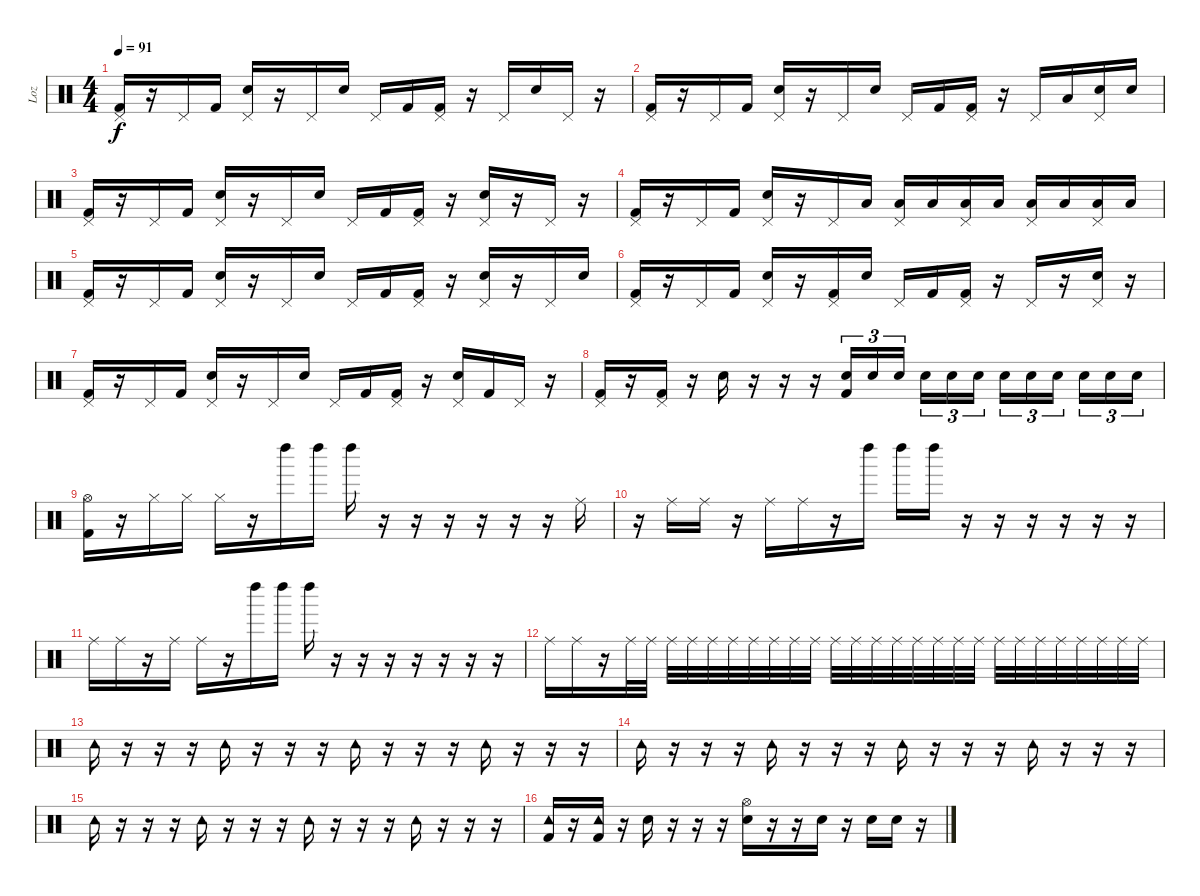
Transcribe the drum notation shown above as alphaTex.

\track ("Loz" "Loz") {instrument percussion}
\staff {score}
\articulation defaults
\ts (4 4)
\tempo 91
\clef neutral
\ks c
("Pedal Hi-Hat (hit)" "Kick (hit) 2").16{dy f} r.16 "Pedal Hi-Hat (hit)".16 "Kick (hit) 2".16 ("Pedal Hi-Hat (hit)" "Electric Snare (hit)").16 r.16 "Pedal Hi-Hat (hit)".16 "Electric Snare (hit)".16 "Pedal Hi-Hat (hit)".16 "Kick (hit) 2".16 ("Pedal Hi-Hat (hit)" "Kick (hit) 2").16 r.16 "Pedal Hi-Hat (hit)".16 "Electric Snare (hit)".16 "Pedal Hi-Hat (hit)".16 r.16 |
("Pedal Hi-Hat (hit)" "Kick (hit) 2").16 r.16 "Pedal Hi-Hat (hit)".16 "Kick (hit) 2".16 ("Pedal Hi-Hat (hit)" "Electric Snare (hit)").16 r.16 "Pedal Hi-Hat (hit)".16 "Electric Snare (hit)".16 "Pedal Hi-Hat (hit)".16 "Kick (hit) 2".16 ("Pedal Hi-Hat (hit)" "Kick (hit) 2").16 r.16 "Pedal Hi-Hat (hit)".16 "Low Tom (hit)".16 ("Pedal Hi-Hat (hit)" "Electric Snare (hit)").16 "Electric Snare (hit)".16 |
("Pedal Hi-Hat (hit)" "Kick (hit) 2").16 r.16 "Pedal Hi-Hat (hit)".16 "Kick (hit) 2".16 ("Pedal Hi-Hat (hit)" "Electric Snare (hit)").16 r.16 "Pedal Hi-Hat (hit)".16 "Electric Snare (hit)".16 "Pedal Hi-Hat (hit)".16 "Kick (hit) 2".16 ("Pedal Hi-Hat (hit)" "Kick (hit) 2").16 r.16 ("Pedal Hi-Hat (hit)" "Electric Snare (hit)").16 r.16 "Pedal Hi-Hat (hit)".16 r.16 |
("Pedal Hi-Hat (hit)" "Kick (hit) 2").16 r.16 "Pedal Hi-Hat (hit)".16 "Kick (hit) 2".16 ("Pedal Hi-Hat (hit)" "Electric Snare (hit)").16 r.16 "Pedal Hi-Hat (hit)".16 "Low Tom (hit)".16 ("Pedal Hi-Hat (hit)" "Low Tom (hit)").16 "Low Tom (hit)".16 ("Pedal Hi-Hat (hit)" "Low Tom (hit)").16 "Low Tom (hit)".16 ("Pedal Hi-Hat (hit)" "Low Tom (hit)").16 "Low Tom (hit)".16 ("Pedal Hi-Hat (hit)" "Low Tom (hit)").16 "Low Tom (hit)".16 |
("Pedal Hi-Hat (hit)" "Kick (hit) 2").16 r.16 "Pedal Hi-Hat (hit)".16 "Kick (hit) 2".16 ("Pedal Hi-Hat (hit)" "Electric Snare (hit)").16 r.16 "Pedal Hi-Hat (hit)".16 "Electric Snare (hit)".16 "Pedal Hi-Hat (hit)".16 "Kick (hit) 2".16 ("Pedal Hi-Hat (hit)" "Kick (hit) 2").16 r.16 ("Pedal Hi-Hat (hit)" "Electric Snare (hit)").16 r.16 "Pedal Hi-Hat (hit)".16 "Electric Snare (hit)".16 |
("Pedal Hi-Hat (hit)" "Kick (hit) 2").16 r.16 "Pedal Hi-Hat (hit)".16 "Kick (hit) 2".16 ("Pedal Hi-Hat (hit)" "Electric Snare (hit)").16 r.16 ("Pedal Hi-Hat (hit)" "Kick (hit) 2").16 "Electric Snare (hit)".16 "Pedal Hi-Hat (hit)".16 "Kick (hit) 2".16 ("Pedal Hi-Hat (hit)" "Kick (hit) 2").16 r.16 "Pedal Hi-Hat (hit)".16 r.16 ("Pedal Hi-Hat (hit)" "Electric Snare (hit)").16 r.16 |
("Pedal Hi-Hat (hit)" "Kick (hit) 2").16 r.16 "Pedal Hi-Hat (hit)".16 "Kick (hit) 2".16 ("Pedal Hi-Hat (hit)" "Electric Snare (hit)").16 r.16 "Pedal Hi-Hat (hit)".16 "Electric Snare (hit)".16 "Pedal Hi-Hat (hit)".16 "Kick (hit) 2".16 ("Pedal Hi-Hat (hit)" "Kick (hit) 2").16 r.16 ("Pedal Hi-Hat (hit)" "Electric Snare (hit)").16 "Kick (hit) 2".16 "Pedal Hi-Hat (hit)".16 r.16 |
("Pedal Hi-Hat (hit)" "Kick (hit) 2").16 r.16 ("Pedal Hi-Hat (hit)" "Kick (hit) 2").16 r.16 "Electric Snare (hit)".16 r.16 r.16 r.16 ("Electric Snare (hit)" "Kick (hit) 2").16{tu (3 2)} "Electric Snare (hit)".16{tu (3 2)} "Electric Snare (hit)".16{tu (3 2)} "Electric Snare (hit)".16{tu (3 2)} "Electric Snare (hit)".16{tu (3 2)} "Electric Snare (hit)".16{tu (3 2)} "Electric Snare (hit)".16{tu (3 2)} "Electric Snare (hit)".16{tu (3 2)} "Electric Snare (hit)".16{tu (3 2)} "Electric Snare (hit)".16{tu (3 2)} "Electric Snare (hit)".16{tu (3 2)} "Electric Snare (hit)".16{tu (3 2)} |
("Hi-Hat (open)" "Kick (hit) 2").16 r.16 "Hi-Hat (closed)".16 "Hi-Hat (closed)".16 "Hi-Hat (closed)".16 r.16 "Left Maraca (hit)".16 "Left Maraca (hit)".16 "Left Maraca (hit)".16 r.16 r.16 r.16 r.16 r.16 r.16 "Ride (middle)".16 |
r.16 "Ride (middle)".16 "Ride (middle)".16 r.16 "Ride (middle)".16 "Ride (middle)".16 r.16 "Left Maraca (hit)".16 "Left Maraca (hit)".16 "Left Maraca (hit)".16 r.16 r.16 r.16 r.16 r.16 r.16 |
"Ride (middle)".16 "Ride (middle)".16 r.16 "Ride (middle)".16 "Ride (middle)".16 r.16 "Left Maraca (hit)".16 "Left Maraca (hit)".16 "Left Maraca (hit)".16 r.16 r.16 r.16 r.16 r.16 r.16 r.16 |
"Ride (middle)".16 "Ride (middle)".16 r.16 "Ride (middle)".32 "Ride (middle)".32 "Ride (middle)".32 "Ride (middle)".32 "Ride (middle)".32 "Ride (middle)".32 "Ride (middle)".32 "Ride (middle)".32 "Ride (middle)".32 "Ride (middle)".32 "Ride (middle)".32 "Ride (middle)".32 "Ride (middle)".32 "Ride (middle)".32 "Ride (middle)".32 "Ride (middle)".32 "Ride (middle)".32 "Ride (middle)".32 "Ride (middle)".32 "Ride (middle)".32 "Ride (middle)".32 "Ride (middle)".32 "Ride (middle)".32 "Ride (middle)".32 "Ride (middle)".32 "Ride (middle)".32 |
"Tambourine (hit)".16 r.16 r.16 r.16 "Tambourine (hit)".16 r.16 r.16 r.16 "Tambourine (hit)".16 r.16 r.16 r.16 "Tambourine (hit)".16 r.16 r.16 r.16 |
"Tambourine (hit)".16 r.16 r.16 r.16 "Tambourine (hit)".16 r.16 r.16 r.16 "Tambourine (hit)".16 r.16 r.16 r.16 "Tambourine (hit)".16 r.16 r.16 r.16 |
"Tambourine (hit)".16 r.16 r.16 r.16 "Tambourine (hit)".16 r.16 r.16 r.16 "Tambourine (hit)".16 r.16 r.16 r.16 "Tambourine (hit)".16 r.16 r.16 r.16 |
("Tambourine (hit)" "Kick (hit) 2").16 r.16 ("Tambourine (hit)" "Kick (hit) 2").16 r.16 "Electric Snare (hit)".16 r.16 r.16 r.16 ("Hi-Hat (open)" "Electric Snare (hit)").16 r.16 r.16 "Electric Snare (hit)".16 r.16 "Electric Snare (hit)".16 "Electric Snare (hit)".16 r.16
